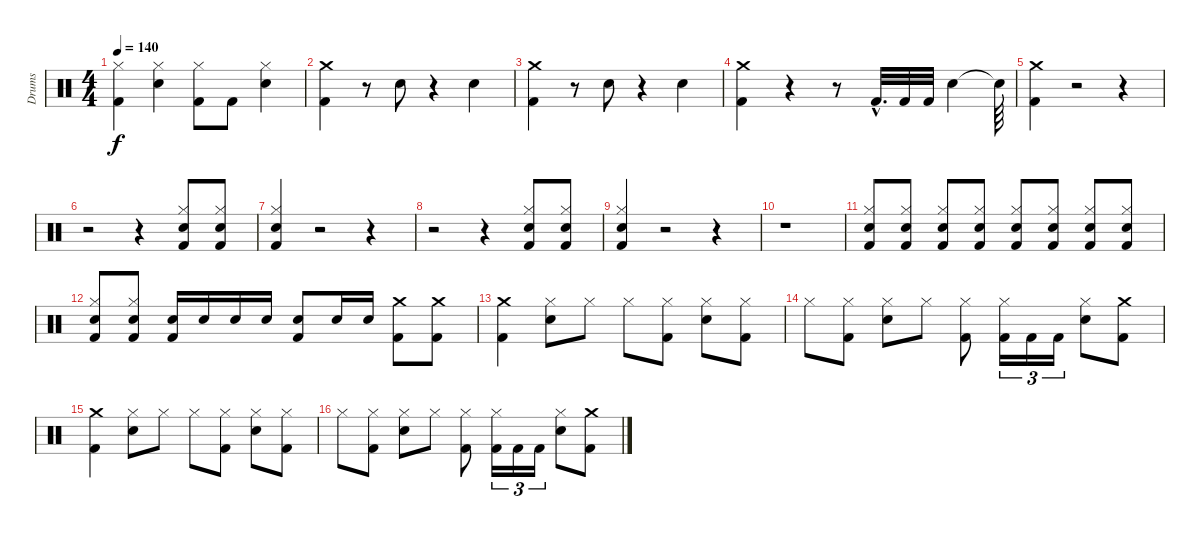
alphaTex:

\track ("Drums" "Drums") {instrument percussion}
\staff {score}
\articulation defaults
\ts (4 4)
\tempo 140
\clef neutral
\ks c
("Kick (hit) 2" "Hi-Hat (closed)").4{dy f} ("Snare (hit) 2" "Hi-Hat (closed)").4 ("Kick (hit) 2" "Hi-Hat (closed)").8 "Kick (hit) 2".8 ("Snare (hit) 2" "Hi-Hat (closed)").4 |
("Kick (hit) 2" "Crash medium (hit)").4 r.8 "Snare (hit) 2".8 r.4 "Snare (hit) 2".4 |
("Kick (hit) 2" "Crash medium (hit)").4 r.8 "Snare (hit) 2".8 r.4 "Snare (hit) 2".4 |
("Kick (hit) 2" "Crash medium (hit)").4 r.4 r.8 "Kick (hit) 2"{hac}.32{d} "Kick (hit) 2".32 "Kick (hit) 2".32 "Snare (hit) 2".4 "Snare (hit)"{t}.64 |
("Kick (hit) 2" "Crash medium (hit)").4 r.2 r.4 |
r.2 r.4 ("Kick (hit) 2" "Snare (hit) 2" "Hi-Hat (closed)").8 ("Hi-Hat (closed)" "Snare (hit) 2" "Kick (hit) 2").8 |
("Kick (hit) 2" "Snare (hit) 2" "Hi-Hat (closed)").4 r.2 r.4 |
r.2 r.4 ("Kick (hit) 2" "Snare (hit) 2" "Hi-Hat (closed)").8 ("Hi-Hat (closed)" "Snare (hit) 2" "Kick (hit) 2").8 |
("Kick (hit) 2" "Snare (hit) 2" "Hi-Hat (closed)").4 r.2 r.4 |
r.1 |
("Snare (hit) 2" "Hi-Hat (closed)" "Kick (hit) 2").8 ("Hi-Hat (closed)" "Snare (hit) 2" "Kick (hit) 2").8 ("Snare (hit) 2" "Hi-Hat (closed)" "Kick (hit) 2").8 ("Hi-Hat (closed)" "Snare (hit) 2" "Kick (hit) 2").8 ("Snare (hit) 2" "Hi-Hat (closed)" "Kick (hit) 2").8 ("Hi-Hat (closed)" "Snare (hit) 2" "Kick (hit) 2").8 ("Snare (hit) 2" "Hi-Hat (closed)" "Kick (hit) 2").8 ("Hi-Hat (closed)" "Snare (hit) 2" "Kick (hit) 2").8 |
("Snare (hit) 2" "Hi-Hat (closed)" "Kick (hit) 2").8 ("Hi-Hat (closed)" "Snare (hit) 2" "Kick (hit) 2").8 ("Kick (hit) 2" "Snare (hit) 2").16 "Snare (hit) 2".16 "Snare (hit) 2".16 "Snare (hit) 2".16 ("Kick (hit) 2" "Snare (hit) 2").8 "Snare (hit) 2".16 "Snare (hit) 2".16 ("Crash medium (hit)" "Kick (hit) 2").8 ("Crash medium (hit)" "Kick (hit) 2").8 |
("Kick (hit) 2" "Crash medium (hit)").4 ("Snare (hit) 2" "Hi-Hat (closed)").8 "Hi-Hat (closed)".8 "Hi-Hat (closed)".8 ("Kick (hit) 2" "Hi-Hat (closed)").8 ("Snare (hit) 2" "Hi-Hat (closed)").8 ("Kick (hit) 2" "Hi-Hat (closed)").8 |
"Hi-Hat (closed)".8 ("Kick (hit) 2" "Hi-Hat (closed)").8 ("Snare (hit) 2" "Hi-Hat (closed)").8 "Hi-Hat (closed)".8 ("Kick (hit) 2" "Hi-Hat (closed)").8 ("Kick (hit) 2" "Hi-Hat (closed)").16{tu (3 2)} "Kick (hit) 2".16{tu (3 2)} "Kick (hit) 2".16{tu (3 2)} ("Snare (hit) 2" "Hi-Hat (closed)").8 ("Kick (hit) 2" "Crash medium (hit)").8 |
("Kick (hit) 2" "Crash medium (hit)").4 ("Snare (hit) 2" "Hi-Hat (closed)").8 "Hi-Hat (closed)".8 "Hi-Hat (closed)".8 ("Kick (hit) 2" "Hi-Hat (closed)").8 ("Snare (hit) 2" "Hi-Hat (closed)").8 ("Kick (hit) 2" "Hi-Hat (closed)").8 |
"Hi-Hat (closed)".8 ("Kick (hit) 2" "Hi-Hat (closed)").8 ("Snare (hit) 2" "Hi-Hat (closed)").8 "Hi-Hat (closed)".8 ("Kick (hit) 2" "Hi-Hat (closed)").8 ("Kick (hit) 2" "Hi-Hat (closed)").16{tu (3 2)} "Kick (hit) 2".16{tu (3 2)} "Kick (hit) 2".16{tu (3 2)} ("Snare (hit) 2" "Hi-Hat (closed)").8 ("Kick (hit) 2" "Crash medium (hit)").8
